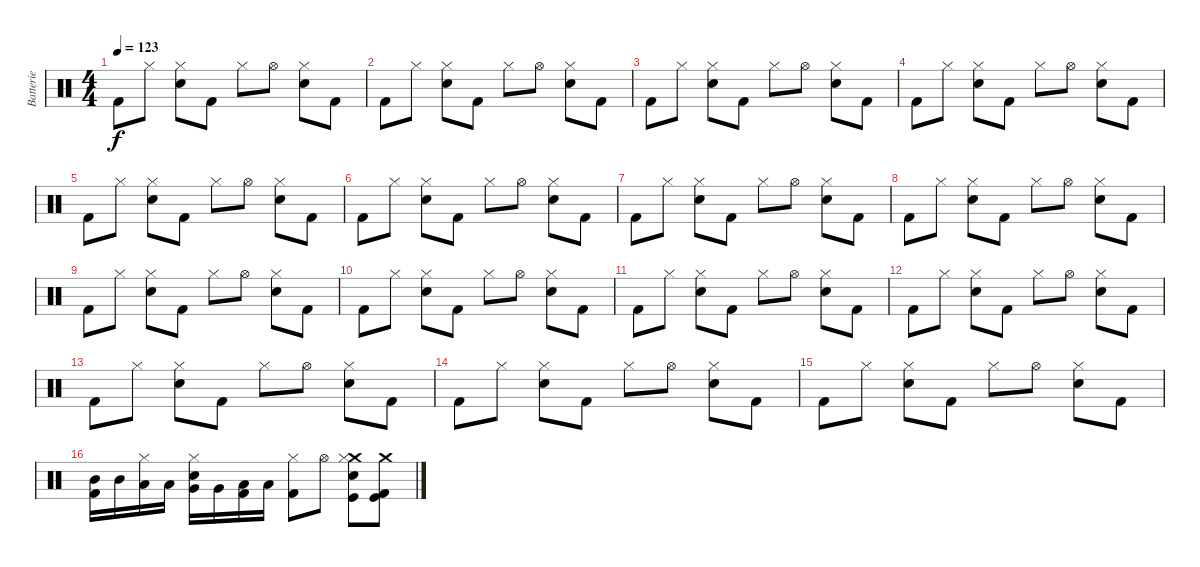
\track ("Batterie" "Batterie") {instrument percussion}
\staff {score}
\articulation defaults
\ts (4 4)
\tempo 123
\clef neutral
\ks c "Kick (hit) 2".8{dy f} "Hi-Hat (closed)".8
("Electric Snare (hit)" "Hi-Hat (closed)").8 "Kick (hit) 2".8 "Hi-Hat (closed)".8 "Hi-Hat (open)".8 ("Snare (hit) 2" "Hi-Hat (closed)").8 "Kick (hit) 2".8 |
"Kick (hit) 2".8 "Hi-Hat (closed)".8 ("Snare (hit) 2" "Hi-Hat (closed)").8 "Kick (hit) 2".8 "Hi-Hat (closed)".8 "Hi-Hat (open)".8 ("Electric Snare (hit)" "Hi-Hat (closed)").8 "Kick (hit) 2".8 |
"Kick (hit) 2".8 "Hi-Hat (closed)".8 ("Electric Snare (hit)" "Hi-Hat (closed)").8 "Kick (hit) 2".8 "Hi-Hat (closed)".8 "Hi-Hat (open)".8 ("Snare (hit) 2" "Hi-Hat (closed)").8 "Kick (hit) 2".8 |
"Kick (hit) 2".8 "Hi-Hat (closed)".8 ("Snare (hit) 2" "Hi-Hat (closed)").8 "Kick (hit) 2".8 "Hi-Hat (closed)".8 "Hi-Hat (open)".8 ("Electric Snare (hit)" "Hi-Hat (closed)").8 "Kick (hit) 2".8 |
"Kick (hit) 2".8 "Hi-Hat (closed)".8 ("Electric Snare (hit)" "Hi-Hat (closed)").8 "Kick (hit) 2".8 "Hi-Hat (closed)".8 "Hi-Hat (open)".8 ("Snare (hit) 2" "Hi-Hat (closed)").8 "Kick (hit) 2".8 |
"Kick (hit) 2".8 "Hi-Hat (closed)".8 ("Snare (hit) 2" "Hi-Hat (closed)").8 "Kick (hit) 2".8 "Hi-Hat (closed)".8 "Hi-Hat (open)".8 ("Electric Snare (hit)" "Hi-Hat (closed)").8 "Kick (hit) 2".8 |
"Kick (hit) 2".8 "Hi-Hat (closed)".8 ("Electric Snare (hit)" "Hi-Hat (closed)").8 "Kick (hit) 2".8 "Hi-Hat (closed)".8 "Hi-Hat (open)".8 ("Snare (hit) 2" "Hi-Hat (closed)").8 "Kick (hit) 2".8 |
"Kick (hit) 2".8 "Hi-Hat (closed)".8 ("Snare (hit) 2" "Hi-Hat (closed)").8 "Kick (hit) 2".8 "Hi-Hat (closed)".8 "Hi-Hat (open)".8 ("Electric Snare (hit)" "Hi-Hat (closed)").8 "Kick (hit) 2".8 |
"Kick (hit) 2".8 "Hi-Hat (closed)".8 ("Electric Snare (hit)" "Hi-Hat (closed)").8 "Kick (hit) 2".8 "Hi-Hat (closed)".8 "Hi-Hat (open)".8 ("Snare (hit) 2" "Hi-Hat (closed)").8 "Kick (hit) 2".8 |
"Kick (hit) 2".8 "Hi-Hat (closed)".8 ("Snare (hit) 2" "Hi-Hat (closed)").8 "Kick (hit) 2".8 "Hi-Hat (closed)".8 "Hi-Hat (open)".8 ("Electric Snare (hit)" "Hi-Hat (closed)").8 "Kick (hit) 2".8 |
"Kick (hit) 2".8 "Hi-Hat (closed)".8 ("Electric Snare (hit)" "Hi-Hat (closed)").8 "Kick (hit) 2".8 "Hi-Hat (closed)".8 "Hi-Hat (open)".8 ("Snare (hit) 2" "Hi-Hat (closed)").8 "Kick (hit) 2".8 |
"Kick (hit) 2".8 "Hi-Hat (closed)".8 ("Snare (hit) 2" "Hi-Hat (closed)").8 "Kick (hit) 2".8 "Hi-Hat (closed)".8 "Hi-Hat (open)".8 ("Electric Snare (hit)" "Hi-Hat (closed)").8 "Kick (hit) 2".8 |
"Kick (hit) 2".8 "Hi-Hat (closed)".8 ("Electric Snare (hit)" "Hi-Hat (closed)").8 "Kick (hit) 2".8 "Hi-Hat (closed)".8 "Hi-Hat (open)".8 ("Snare (hit) 2" "Hi-Hat (closed)").8 "Kick (hit) 2".8 |
"Kick (hit) 2".8 "Hi-Hat (closed)".8 ("Snare (hit) 2" "Hi-Hat (closed)").8 "Kick (hit) 2".8 "Hi-Hat (closed)".8 "Hi-Hat (open)".8 ("Electric Snare (hit)" "Hi-Hat (closed)").8 "Kick (hit) 2".8 |
"Kick (hit) 2".8 "Hi-Hat (closed)".8 ("Electric Snare (hit)" "Hi-Hat (closed)").8 "Kick (hit) 2".8 "Hi-Hat (closed)".8 "Hi-Hat (open)".8 ("Snare (hit) 2" "Hi-Hat (closed)").8 "Kick (hit) 2".8 |
("Kick (hit) 2" "Mid Tom (hit)").16 "Mid Tom (hit)".16 ("Low Tom (hit)" "Hi-Hat (closed)").16 "Low Tom (hit)".16 ("Snare (hit) 2" "Very Low Tom (hit)" "Hi-Hat (closed)").16 "Very Low Tom (hit)".16 ("Kick (hit) 2" "Low Floor Tom (hit)").16 "Low Floor Tom (hit)".16 ("Kick (hit) 2" "Hi-Hat (closed)").8 "Hi-Hat (open)".8 ("Electric Snare (hit)" "Kick (hit)" "Crash medium (hit)" "Hi-Hat (closed)").8 ("Kick (hit) 2" "Kick (hit)" "Crash medium (hit)").8
